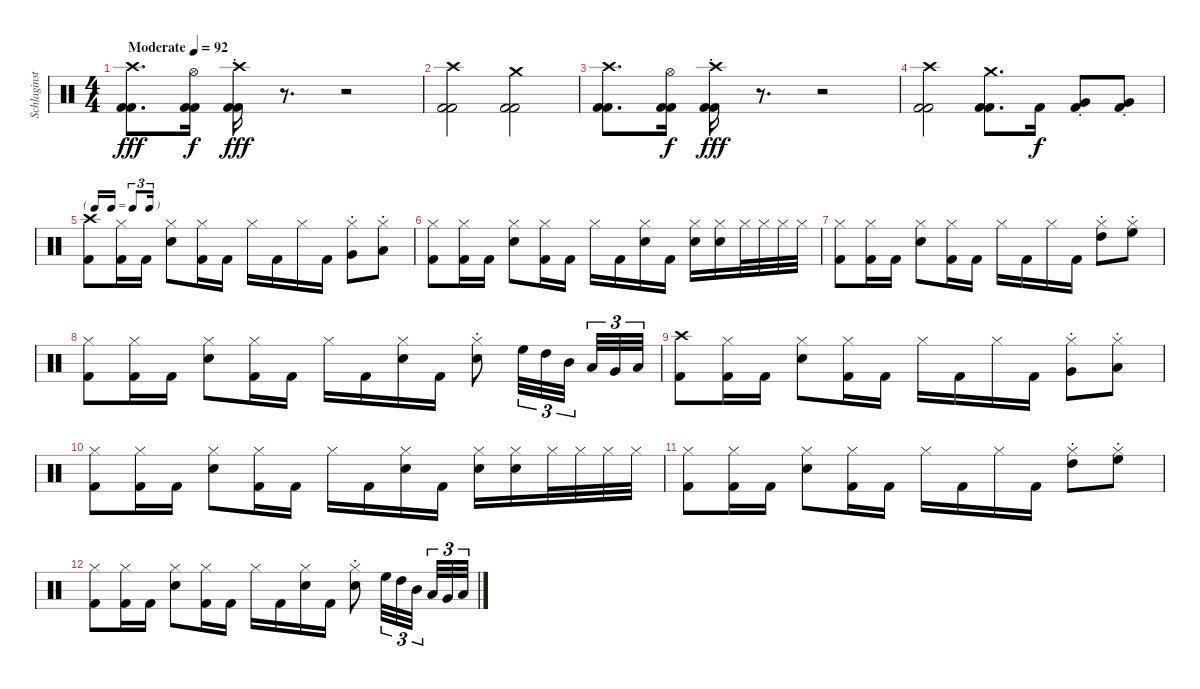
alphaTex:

\track ("Schlaginstrumente - Auswahl" "Schlaginst") {instrument percussion}
\staff {score}
\articulation defaults
\ts (4 4)
\tempo (92 "Moderate")
\clef neutral
\ks c
("Crash high (hit)" "Kick (hit) 2" "Kick (hit) 2").8{d dy fff} ("Hi-Hat (open)" "Kick (hit) 2" "Kick (hit) 2").16{dy f} ("Crash high (hit)"{st} "Kick (hit) 2" "Kick (hit) 2").16{dy fff} r.8{d} r.2 |
("Crash high (hit)" "Kick (hit) 2" "Kick (hit) 2").2 ("Crash medium (hit)" "Kick (hit) 2" "Kick (hit) 2").2 |
("Crash high (hit)" "Kick (hit) 2" "Kick (hit) 2").8{d} ("Hi-Hat (open)" "Kick (hit) 2" "Kick (hit) 2").16{dy f} ("Crash high (hit)"{st} "Kick (hit) 2" "Kick (hit) 2").16{dy fff} r.8{d} r.2 |
("Crash high (hit)" "Kick (hit) 2" "Kick (hit) 2").2 ("Crash medium (hit)" "Kick (hit) 2" "Kick (hit) 2").8{d} "Kick (hit) 2".16{dy f} ("Very Low Tom (hit)"{st} "Kick (hit) 2").8 ("Very Low Tom (hit)"{st} "Kick (hit) 2").8 |
\tf triplet16th
("Crash high (hit)" "Kick (hit) 2").8 ("Hi-Hat (closed)" "Kick (hit) 2").16 "Kick (hit) 2".16 ("Hi-Hat (closed)" "Snare (hit) 2").8 ("Hi-Hat (closed)" "Kick (hit) 2").16 "Kick (hit) 2".16 "Hi-Hat (closed)".16 "Kick (hit) 2".16 "Hi-Hat (closed)".16 "Kick (hit) 2".16 ("Hi-Hat (closed)" "Very Low Tom (hit)"{st}).8 ("Hi-Hat (closed)" "Low Floor Tom (hit)"{st}).8 |
("Hi-Hat (closed)" "Kick (hit) 2").8 ("Hi-Hat (closed)" "Kick (hit) 2").16 "Kick (hit) 2".16 ("Hi-Hat (closed)" "Snare (hit) 2").8 ("Hi-Hat (closed)" "Kick (hit) 2").16 "Kick (hit) 2".16 "Hi-Hat (closed)".16 "Kick (hit) 2".16 ("Hi-Hat (closed)" "Snare (hit) 2").16 "Kick (hit) 2".16 ("Hi-Hat (closed)" "Snare (hit) 2").16 ("Hi-Hat (closed)" "Snare (hit) 2").16 "Hi-Hat (closed)".32 "Hi-Hat (closed)".32 "Hi-Hat (closed)".32 "Hi-Hat (closed)".32 |
("Hi-Hat (closed)" "Kick (hit) 2").8 ("Hi-Hat (closed)" "Kick (hit) 2").16 "Kick (hit) 2".16 ("Hi-Hat (closed)" "Snare (hit) 2").8 ("Hi-Hat (closed)" "Kick (hit) 2").16 "Kick (hit) 2".16 "Hi-Hat (closed)".16 "Kick (hit) 2".16 "Hi-Hat (closed)".16 "Kick (hit) 2".16 ("Hi-Hat (closed)" "High Tom (hit)"{st}).8 ("Hi-Hat (closed)" "High Floor Tom (hit)"{st}).8 |
("Hi-Hat (closed)" "Kick (hit) 2").8 ("Hi-Hat (closed)" "Kick (hit) 2").16 "Kick (hit) 2".16 ("Hi-Hat (closed)" "Snare (hit) 2").8 ("Hi-Hat (closed)" "Kick (hit) 2").16 "Kick (hit) 2".16 "Hi-Hat (closed)".16 "Kick (hit) 2".16 ("Hi-Hat (closed)" "Snare (hit) 2").16 "Kick (hit) 2".16 ("Hi-Hat (closed)"{st} "Snare (hit) 2"{st}).8 "High Floor Tom (hit)".32{tu (3 2)} "High Tom (hit)".32{tu (3 2)} "Mid Tom (hit)".32{tu (3 2) beam splitsecondary} "Low Tom (hit)".32{tu (3 2)} "Very Low Tom (hit)".32{tu (3 2)} "Low Floor Tom (hit)".32{tu (3 2)} |
("Crash high (hit)" "Kick (hit) 2").8 ("Hi-Hat (closed)" "Kick (hit) 2").16 "Kick (hit) 2".16 ("Hi-Hat (closed)" "Snare (hit) 2").8 ("Hi-Hat (closed)" "Kick (hit) 2").16 "Kick (hit) 2".16 "Hi-Hat (closed)".16 "Kick (hit) 2".16 "Hi-Hat (closed)".16 "Kick (hit) 2".16 ("Hi-Hat (closed)" "Very Low Tom (hit)"{st}).8 ("Hi-Hat (closed)" "Low Floor Tom (hit)"{st}).8 |
("Hi-Hat (closed)" "Kick (hit) 2").8 ("Hi-Hat (closed)" "Kick (hit) 2").16 "Kick (hit) 2".16 ("Hi-Hat (closed)" "Snare (hit) 2").8 ("Hi-Hat (closed)" "Kick (hit) 2").16 "Kick (hit) 2".16 "Hi-Hat (closed)".16 "Kick (hit) 2".16 ("Hi-Hat (closed)" "Snare (hit) 2").16 "Kick (hit) 2".16 ("Hi-Hat (closed)" "Snare (hit) 2").16 ("Hi-Hat (closed)" "Snare (hit) 2").16 "Hi-Hat (closed)".32 "Hi-Hat (closed)".32 "Hi-Hat (closed)".32 "Hi-Hat (closed)".32 |
("Hi-Hat (closed)" "Kick (hit) 2").8 ("Hi-Hat (closed)" "Kick (hit) 2").16 "Kick (hit) 2".16 ("Hi-Hat (closed)" "Snare (hit) 2").8 ("Hi-Hat (closed)" "Kick (hit) 2").16 "Kick (hit) 2".16 "Hi-Hat (closed)".16 "Kick (hit) 2".16 "Hi-Hat (closed)".16 "Kick (hit) 2".16 ("Hi-Hat (closed)" "High Tom (hit)"{st}).8 ("Hi-Hat (closed)" "High Floor Tom (hit)"{st}).8 |
("Hi-Hat (closed)" "Kick (hit) 2").8 ("Hi-Hat (closed)" "Kick (hit) 2").16 "Kick (hit) 2".16 ("Hi-Hat (closed)" "Snare (hit) 2").8 ("Hi-Hat (closed)" "Kick (hit) 2").16 "Kick (hit) 2".16 "Hi-Hat (closed)".16 "Kick (hit) 2".16 ("Hi-Hat (closed)" "Snare (hit) 2").16 "Kick (hit) 2".16 ("Hi-Hat (closed)"{st} "Snare (hit) 2"{st}).8 "High Floor Tom (hit)".32{tu (3 2)} "High Tom (hit)".32{tu (3 2)} "Mid Tom (hit)".32{tu (3 2) beam splitsecondary} "Low Tom (hit)".32{tu (3 2)} "Very Low Tom (hit)".32{tu (3 2)} "Low Floor Tom (hit)".32{tu (3 2)}
